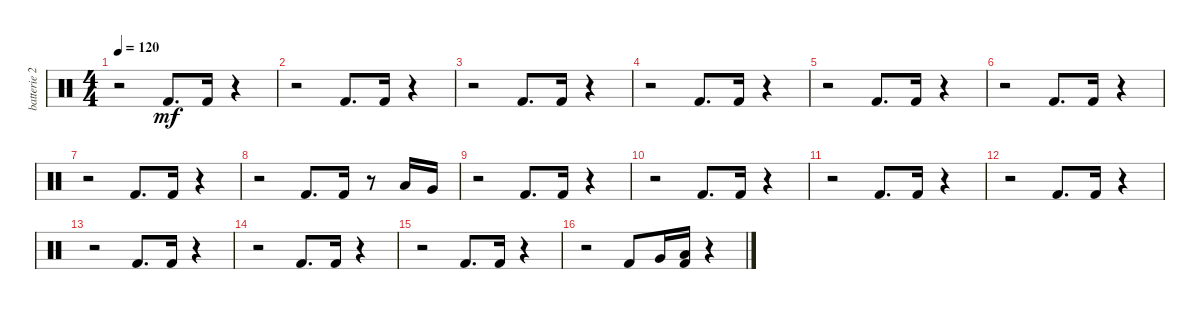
\track ("batterie 2" "batterie 2") {instrument percussion}
\staff {score}
\articulation defaults
\ts (4 4)
\tempo 120
\clef neutral
\ks c
r.2{dy mf} "Kick (hit) 2".8{d} "Kick (hit) 2".16 r.4 |
r.2 "Kick (hit) 2".8{d} "Kick (hit) 2".16 r.4 |
r.2 "Kick (hit) 2".8{d} "Kick (hit) 2".16 r.4 |
r.2 "Kick (hit) 2".8{d} "Kick (hit) 2".16 r.4 |
r.2 "Kick (hit) 2".8{d} "Kick (hit) 2".16 r.4 |
r.2 "Kick (hit) 2".8{d} "Kick (hit) 2".16 r.4 |
r.2 "Kick (hit) 2".8{d} "Kick (hit) 2".16 r.4 |
r.2 "Kick (hit) 2".8{d} "Kick (hit) 2".16 r.8 "Low Tom (hit)".16 "Very Low Tom (hit)".16 |
r.2 "Kick (hit) 2".8{d} "Kick (hit) 2".16 r.4 |
r.2 "Kick (hit) 2".8{d} "Kick (hit) 2".16 r.4 |
r.2 "Kick (hit) 2".8{d} "Kick (hit) 2".16 r.4 |
r.2 "Kick (hit) 2".8{d} "Kick (hit) 2".16 r.4 |
r.2 "Kick (hit) 2".8{d} "Kick (hit) 2".16 r.4 |
r.2 "Kick (hit) 2".8{d} "Kick (hit) 2".16 r.4 |
r.2 "Kick (hit) 2".8{d} "Kick (hit) 2".16 r.4 |
r.2 "Kick (hit) 2".8 "Very Low Tom (hit)".16 ("Kick (hit) 2" "Low Floor Tom (hit)").16 r.4
